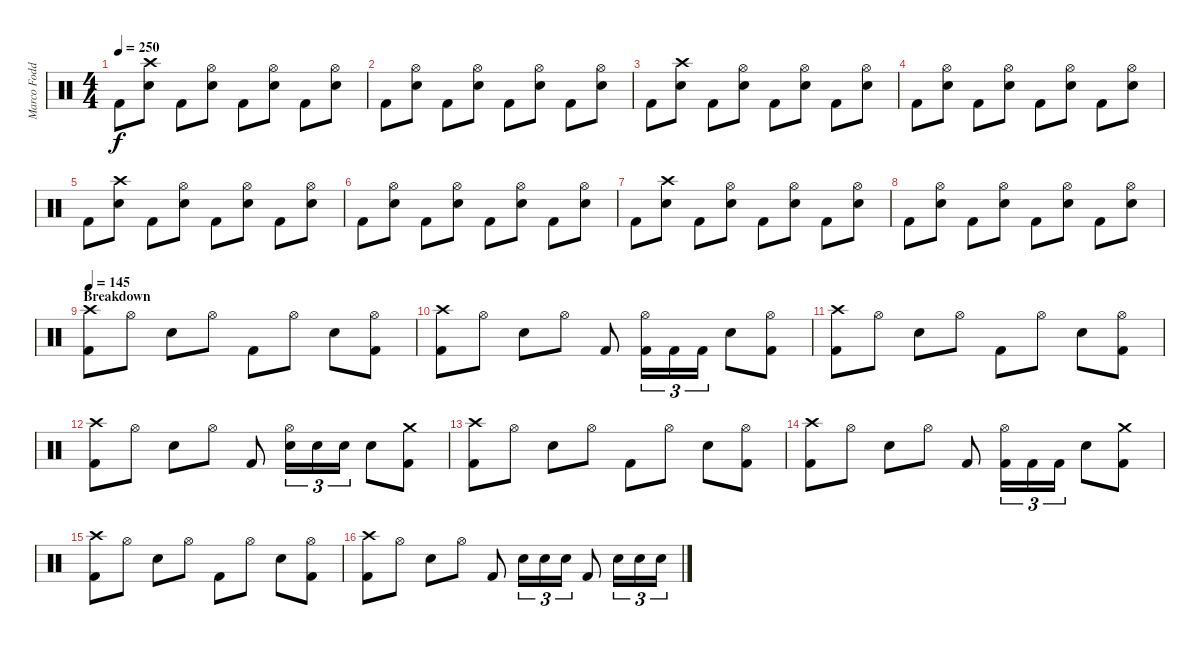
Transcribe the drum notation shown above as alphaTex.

\track ("Marco Foddis " "Marco Fodd") {instrument percussion}
\staff {score}
\articulation defaults
\ts (4 4)
\tempo 250
\clef neutral
\ks c "Kick (hit) 2".8{dy f}
("Crash high (hit)" "Electric Snare (hit)").8 "Kick (hit) 2".8 ("Hi-Hat (open)" "Electric Snare (hit)").8 "Kick (hit) 2".8 ("Hi-Hat (open)" "Electric Snare (hit)").8 "Kick (hit) 2".8 ("Hi-Hat (open)" "Electric Snare (hit)").8 |
"Kick (hit) 2".8 ("Hi-Hat (open)" "Electric Snare (hit)").8 "Kick (hit) 2".8 ("Hi-Hat (open)" "Electric Snare (hit)").8 "Kick (hit) 2".8 ("Hi-Hat (open)" "Electric Snare (hit)").8 "Kick (hit) 2".8 ("Hi-Hat (open)" "Electric Snare (hit)").8 |
"Kick (hit) 2".8 ("Crash high (hit)" "Electric Snare (hit)").8 "Kick (hit) 2".8 ("Hi-Hat (open)" "Electric Snare (hit)").8 "Kick (hit) 2".8 ("Hi-Hat (open)" "Electric Snare (hit)").8 "Kick (hit) 2".8 ("Hi-Hat (open)" "Electric Snare (hit)").8 |
"Kick (hit) 2".8 ("Hi-Hat (open)" "Electric Snare (hit)").8 "Kick (hit) 2".8 ("Hi-Hat (open)" "Electric Snare (hit)").8 "Kick (hit) 2".8 ("Hi-Hat (open)" "Electric Snare (hit)").8 "Kick (hit) 2".8 ("Hi-Hat (open)" "Electric Snare (hit)").8 |
"Kick (hit) 2".8 ("Crash high (hit)" "Electric Snare (hit)").8 "Kick (hit) 2".8 ("Hi-Hat (open)" "Electric Snare (hit)").8 "Kick (hit) 2".8 ("Hi-Hat (open)" "Electric Snare (hit)").8 "Kick (hit) 2".8 ("Hi-Hat (open)" "Electric Snare (hit)").8 |
"Kick (hit) 2".8 ("Hi-Hat (open)" "Electric Snare (hit)").8 "Kick (hit) 2".8 ("Hi-Hat (open)" "Electric Snare (hit)").8 "Kick (hit) 2".8 ("Hi-Hat (open)" "Electric Snare (hit)").8 "Kick (hit) 2".8 ("Hi-Hat (open)" "Electric Snare (hit)").8 |
"Kick (hit) 2".8 ("Crash high (hit)" "Electric Snare (hit)").8 "Kick (hit) 2".8 ("Hi-Hat (open)" "Electric Snare (hit)").8 "Kick (hit) 2".8 ("Hi-Hat (open)" "Electric Snare (hit)").8 "Kick (hit) 2".8 ("Hi-Hat (open)" "Electric Snare (hit)").8 |
"Kick (hit) 2".8 ("Hi-Hat (open)" "Electric Snare (hit)").8 "Kick (hit) 2".8 ("Hi-Hat (open)" "Electric Snare (hit)").8 "Kick (hit) 2".8 ("Hi-Hat (open)" "Electric Snare (hit)").8 "Kick (hit) 2".8 ("Hi-Hat (open)" "Electric Snare (hit)").8 |
\section ("" "Breakdown")
\tempo 145
("Crash high (hit)" "Kick (hit) 2").8 "Hi-Hat (open)".8 "Electric Snare (hit)".8 "Hi-Hat (open)".8 "Kick (hit) 2".8 "Hi-Hat (open)".8 "Electric Snare (hit)".8 ("Hi-Hat (open)" "Kick (hit) 2").8 |
("Crash high (hit)" "Kick (hit) 2").8 "Hi-Hat (open)".8 "Electric Snare (hit)".8 "Hi-Hat (open)".8 "Kick (hit) 2".8 ("Hi-Hat (open)" "Kick (hit) 2").16{tu (3 2)} "Kick (hit) 2".16{tu (3 2)} "Kick (hit) 2".16{tu (3 2)} "Electric Snare (hit)".8 ("Hi-Hat (open)" "Kick (hit) 2").8 |
("Crash high (hit)" "Kick (hit) 2").8 "Hi-Hat (open)".8 "Electric Snare (hit)".8 "Hi-Hat (open)".8 "Kick (hit) 2".8 "Hi-Hat (open)".8 "Electric Snare (hit)".8 ("Hi-Hat (open)" "Kick (hit) 2").8 |
("Crash high (hit)" "Kick (hit) 2").8 "Hi-Hat (open)".8 "Electric Snare (hit)".8 "Hi-Hat (open)".8 "Kick (hit) 2".8 ("Hi-Hat (open)" "Electric Snare (hit)").16{tu (3 2)} "Electric Snare (hit)".16{tu (3 2)} "Electric Snare (hit)".16{tu (3 2)} "Electric Snare (hit)".8 ("Crash medium (hit)" "Kick (hit) 2").8 |
("Crash high (hit)" "Kick (hit) 2").8 "Hi-Hat (open)".8 "Electric Snare (hit)".8 "Hi-Hat (open)".8 "Kick (hit) 2".8 "Hi-Hat (open)".8 "Electric Snare (hit)".8 ("Hi-Hat (open)" "Kick (hit) 2").8 |
("Crash high (hit)" "Kick (hit) 2").8 "Hi-Hat (open)".8 "Electric Snare (hit)".8 "Hi-Hat (open)".8 "Kick (hit) 2".8 ("Hi-Hat (open)" "Kick (hit) 2").16{tu (3 2)} "Kick (hit) 2".16{tu (3 2)} "Kick (hit) 2".16{tu (3 2)} "Electric Snare (hit)".8 ("Crash medium (hit)" "Kick (hit) 2").8 |
("Crash high (hit)" "Kick (hit) 2").8 "Hi-Hat (open)".8 "Electric Snare (hit)".8 "Hi-Hat (open)".8 "Kick (hit) 2".8 "Hi-Hat (open)".8 "Electric Snare (hit)".8 ("Hi-Hat (open)" "Kick (hit) 2").8 |
("Crash high (hit)" "Kick (hit) 2").8 "Hi-Hat (open)".8 "Electric Snare (hit)".8 "Hi-Hat (open)".8 "Kick (hit) 2".8 "Electric Snare (hit)".16{tu (3 2)} "Electric Snare (hit)".16{tu (3 2)} "Electric Snare (hit)".16{tu (3 2)} "Kick (hit) 2".8 "Electric Snare (hit)".16{tu (3 2)} "Electric Snare (hit)".16{tu (3 2)} "Electric Snare (hit)".16{tu (3 2)}
